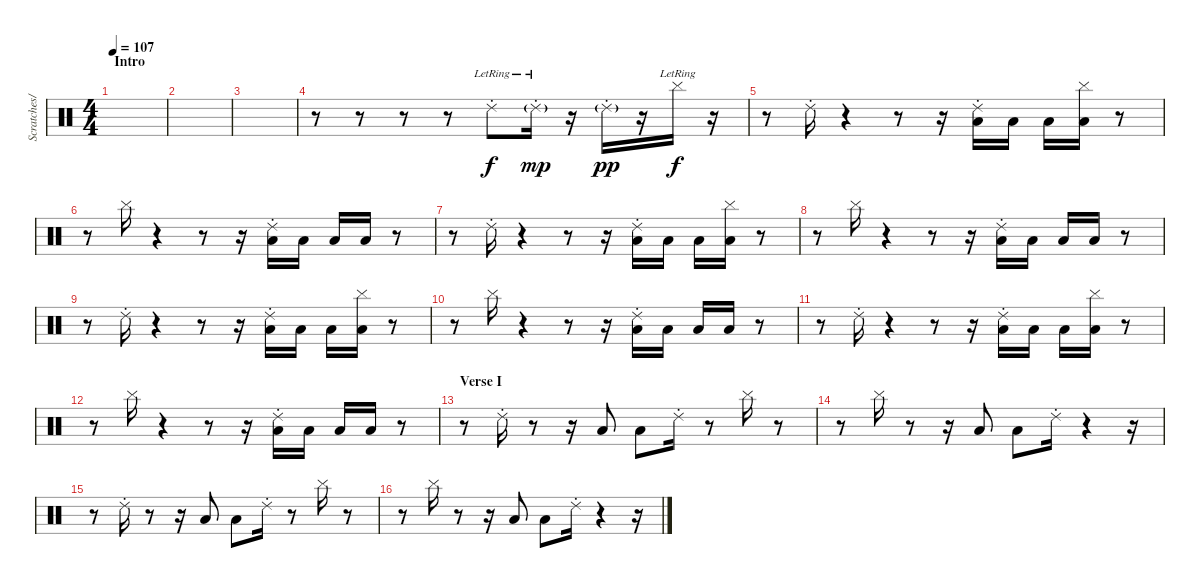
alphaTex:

\track ("Scratches/Toms" "Scratches/") {instrument percussion}
\staff {score}
\articulation defaults
\ts (4 4)
\section ("" "Intro")
\tempo 107
\clef neutral
\ks c
|
|
|
r.8 r.8 r.8 r.8 "Ride (choke) 2"{lr}.8 "Ride (choke) 2"{g lr}.16{dy mp} r.16 "Ride (choke) 2"{g}.16{dy pp} r.16 "Cymbal (hit)"{lr}.16{dy f} r.16 |
r.8 "Ride (choke) 2".16 r.4 r.8 r.16 ("Low Floor Tom (hit)" "Ride (choke) 2").16 "Low Floor Tom (hit)".16 "Low Floor Tom (hit)".16 ("Low Floor Tom (hit)" "Cymbal (hit)").16 r.8 |
r.8 "Cymbal (hit)".16 r.4 r.8 r.16 ("Low Floor Tom (hit)" "Ride (choke) 2").16 "Low Floor Tom (hit)".16 "Low Floor Tom (hit)".16 "Low Floor Tom (hit)".16 r.8 |
r.8 "Ride (choke) 2".16 r.4 r.8 r.16 ("Low Floor Tom (hit)" "Ride (choke) 2").16 "Low Floor Tom (hit)".16 "Low Floor Tom (hit)".16 ("Low Floor Tom (hit)" "Cymbal (hit)").16 r.8 |
r.8 "Cymbal (hit)".16 r.4 r.8 r.16 ("Low Floor Tom (hit)" "Ride (choke) 2").16 "Low Floor Tom (hit)".16 "Low Floor Tom (hit)".16 "Low Floor Tom (hit)".16 r.8 |
r.8 "Ride (choke) 2".16 r.4 r.8 r.16 ("Low Floor Tom (hit)" "Ride (choke) 2").16 "Low Floor Tom (hit)".16 "Low Floor Tom (hit)".16 ("Low Floor Tom (hit)" "Cymbal (hit)").16 r.8 |
r.8 "Cymbal (hit)".16 r.4 r.8 r.16 ("Low Floor Tom (hit)" "Ride (choke) 2").16 "Low Floor Tom (hit)".16 "Low Floor Tom (hit)".16 "Low Floor Tom (hit)".16 r.8 |
r.8 "Ride (choke) 2".16 r.4 r.8 r.16 ("Low Floor Tom (hit)" "Ride (choke) 2").16 "Low Floor Tom (hit)".16 "Low Floor Tom (hit)".16 ("Low Floor Tom (hit)" "Cymbal (hit)").16 r.8 |
r.8 "Cymbal (hit)".16 r.4 r.8 r.16 ("Low Floor Tom (hit)" "Ride (choke) 2").16 "Low Floor Tom (hit)".16 "Low Floor Tom (hit)".16 "Low Floor Tom (hit)".16 r.8 |
\section ("" "Verse I")
r.8 "Ride (choke) 2".16 r.8 r.16 "Low Floor Tom (hit)".8 "Low Floor Tom (hit)".8 "Ride (choke) 2".16 r.8 "Cymbal (hit)".16 r.8 |
r.8 "Cymbal (hit)".16 r.8 r.16 "Low Floor Tom (hit)".8 "Low Floor Tom (hit)".8 "Ride (choke) 2".16 r.4 r.16 |
r.8 "Ride (choke) 2".16 r.8 r.16 "Low Floor Tom (hit)".8 "Low Floor Tom (hit)".8 "Ride (choke) 2".16 r.8 "Cymbal (hit)".16 r.8 |
r.8 "Cymbal (hit)".16 r.8 r.16 "Low Floor Tom (hit)".8 "Low Floor Tom (hit)".8 "Ride (choke) 2".16 r.4 r.16
